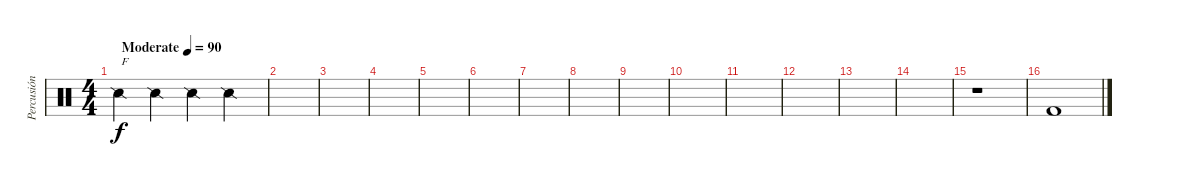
\track ("Percusión" "Percusión") {instrument percussion}
\staff {score}
\articulation defaults
\ts (4 4)
\tempo (90 "Moderate")
\clef neutral
\ks c "Snare (side stick) 2".4{txt "F" dy f} "Snare (side stick) 2".4 "Snare (side stick) 2".4 "Snare (side stick) 2".4
|
|
|
|
|
|
|
|
|
|
|
|
|
|
r.1 |
"Kick (hit) 2".1
